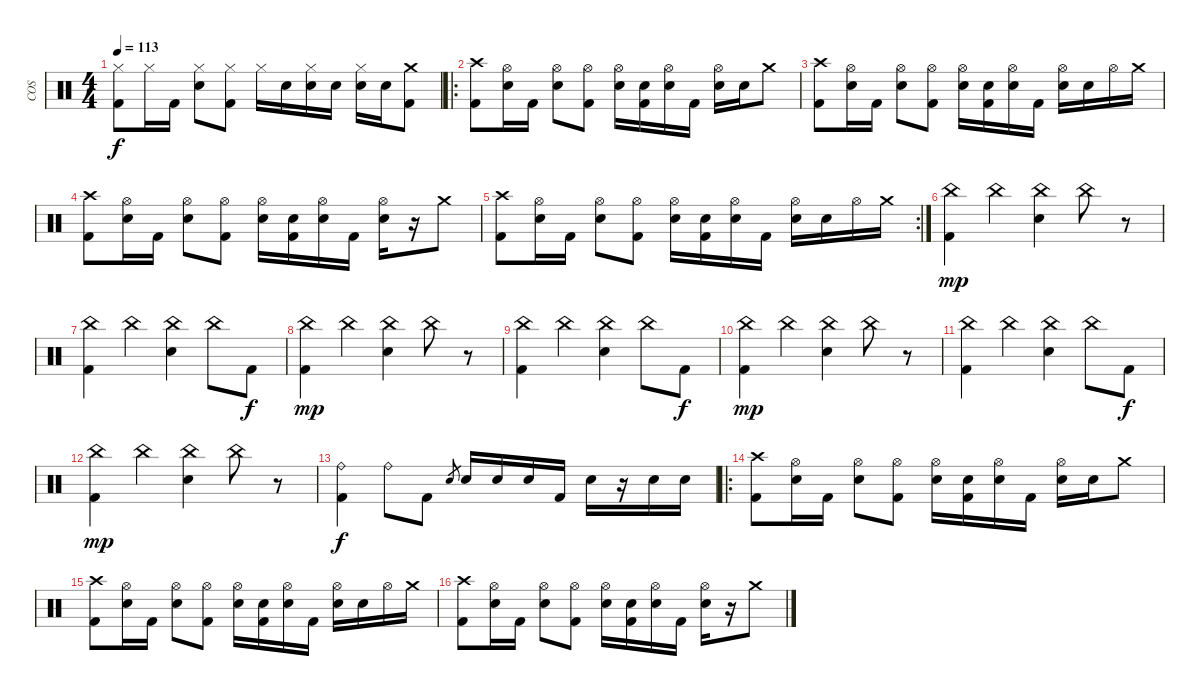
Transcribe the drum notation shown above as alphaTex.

\track ("COS" "COS") {instrument percussion}
\staff {score}
\articulation defaults
\ts (4 4)
\tempo 113
\clef neutral
\ks c
("Hi-Hat (closed)" "Kick (hit) 2").8{dy f} "Hi-Hat (closed)".16 "Kick (hit) 2".16 ("Hi-Hat (closed)" "Electric Snare (hit)").8 ("Hi-Hat (closed)" "Kick (hit) 2").8 "Hi-Hat (closed)".16 "Electric Snare (hit)".16 ("Hi-Hat (closed)" "Electric Snare (hit)").16 "Electric Snare (hit)".16 ("Hi-Hat (closed)" "Electric Snare (hit)").16 "Electric Snare (hit)".16 ("Crash medium (hit)" "Kick (hit) 2").8 |
\ro
("Crash high (hit)" "Kick (hit) 2").8 ("Hi-Hat (open)" "Snare (hit)").16 "Kick (hit) 2".16 ("Hi-Hat (open)" "Electric Snare (hit)").8 ("Hi-Hat (open)" "Kick (hit) 2").8 ("Hi-Hat (open)" "Snare (hit)").16 ("Snare (hit)" "Kick (hit) 2").16 ("Hi-Hat (open)" "Electric Snare (hit)").16 "Kick (hit) 2".16 ("Hi-Hat (open)" "Electric Snare (hit)").16 "Electric Snare (hit)".16 "Crash medium (hit)".8 |
("Crash high (hit)" "Kick (hit) 2").8 ("Hi-Hat (open)" "Snare (hit)").16 "Kick (hit) 2".16 ("Hi-Hat (open)" "Electric Snare (hit)").8 ("Hi-Hat (open)" "Kick (hit) 2").8 ("Hi-Hat (open)" "Snare (hit)").16 ("Snare (hit)" "Kick (hit) 2").16 ("Hi-Hat (open)" "Electric Snare (hit)").16 "Kick (hit) 2".16 ("Hi-Hat (open)" "Electric Snare (hit)").16 "Electric Snare (hit)".16 "Hi-Hat (open)".16 "Crash medium (hit)".16 |
("Crash high (hit)" "Kick (hit) 2").8 ("Hi-Hat (open)" "Snare (hit)").16 "Kick (hit) 2".16 ("Hi-Hat (open)" "Electric Snare (hit)").8 ("Hi-Hat (open)" "Kick (hit) 2").8 ("Hi-Hat (open)" "Snare (hit)").16 ("Snare (hit)" "Kick (hit) 2").16 ("Hi-Hat (open)" "Electric Snare (hit)").16 "Kick (hit) 2".16 ("Hi-Hat (open)" "Electric Snare (hit)").16 r.16 "Crash medium (hit)".8 |
\rc 2
("Crash high (hit)" "Kick (hit) 2").8 ("Hi-Hat (open)" "Snare (hit)").16 "Kick (hit) 2".16 ("Hi-Hat (open)" "Electric Snare (hit)").8 ("Hi-Hat (open)" "Kick (hit) 2").8 ("Hi-Hat (open)" "Snare (hit)").16 ("Snare (hit)" "Kick (hit) 2").16 ("Hi-Hat (open)" "Electric Snare (hit)").16 "Kick (hit) 2".16 ("Hi-Hat (open)" "Electric Snare (hit)").16 "Electric Snare (hit)".16 "Hi-Hat (open)".16 "Crash medium (hit)".16 |
("China (hit)" "Kick (hit) 2").4{dy mp} "China (hit)".4 ("China (hit)" "Electric Snare (hit)").4 "China (hit)".8 r.8 |
("China (hit)" "Kick (hit) 2").4 "China (hit)".4 ("China (hit)" "Electric Snare (hit)").4 "China (hit)".8 "Kick (hit) 2".8{dy f} |
("China (hit)" "Kick (hit) 2").4{dy mp} "China (hit)".4 ("China (hit)" "Electric Snare (hit)").4 "China (hit)".8 r.8 |
("China (hit)" "Kick (hit) 2").4 "China (hit)".4 ("China (hit)" "Electric Snare (hit)").4 "China (hit)".8 "Kick (hit) 2".8{dy f} |
("China (hit)" "Kick (hit) 2").4{dy mp} "China (hit)".4 ("China (hit)" "Electric Snare (hit)").4 "China (hit)".8 r.8 |
("China (hit)" "Kick (hit) 2").4 "China (hit)".4 ("China (hit)" "Electric Snare (hit)").4 "China (hit)".8 "Kick (hit) 2".8{dy f} |
("China (hit)" "Kick (hit) 2").4{dy mp} "China (hit)".4 ("China (hit)" "Electric Snare (hit)").4 "China (hit)".8 r.8 |
("Ride (bell)" "Kick (hit) 2").4{dy f} "Ride (bell)".8 "Kick (hit) 2".8 "Electric Snare (hit)"{sl}.8{gr} "Electric Snare (hit)".16 "Electric Snare (hit)".16 "Electric Snare (hit)".16 "Kick (hit) 2".16 "Electric Snare (hit)".16 r.16 "Electric Snare (hit)".16 "Electric Snare (hit)".16 |
\ro
("Crash high (hit)" "Kick (hit) 2").8 ("Hi-Hat (open)" "Snare (hit)").16 "Kick (hit) 2".16 ("Hi-Hat (open)" "Electric Snare (hit)").8 ("Hi-Hat (open)" "Kick (hit) 2").8 ("Hi-Hat (open)" "Snare (hit)").16 ("Snare (hit)" "Kick (hit) 2").16 ("Hi-Hat (open)" "Electric Snare (hit)").16 "Kick (hit) 2".16 ("Hi-Hat (open)" "Electric Snare (hit)").16 "Electric Snare (hit)".16 "Crash medium (hit)".8 |
("Crash high (hit)" "Kick (hit) 2").8 ("Hi-Hat (open)" "Snare (hit)").16 "Kick (hit) 2".16 ("Hi-Hat (open)" "Electric Snare (hit)").8 ("Hi-Hat (open)" "Kick (hit) 2").8 ("Hi-Hat (open)" "Snare (hit)").16 ("Snare (hit)" "Kick (hit) 2").16 ("Hi-Hat (open)" "Electric Snare (hit)").16 "Kick (hit) 2".16 ("Hi-Hat (open)" "Electric Snare (hit)").16 "Electric Snare (hit)".16 "Hi-Hat (open)".16 "Crash medium (hit)".16 |
("Crash high (hit)" "Kick (hit) 2").8 ("Hi-Hat (open)" "Snare (hit)").16 "Kick (hit) 2".16 ("Hi-Hat (open)" "Electric Snare (hit)").8 ("Hi-Hat (open)" "Kick (hit) 2").8 ("Hi-Hat (open)" "Snare (hit)").16 ("Snare (hit)" "Kick (hit) 2").16 ("Hi-Hat (open)" "Electric Snare (hit)").16 "Kick (hit) 2".16 ("Hi-Hat (open)" "Electric Snare (hit)").16 r.16 "Crash medium (hit)".8
